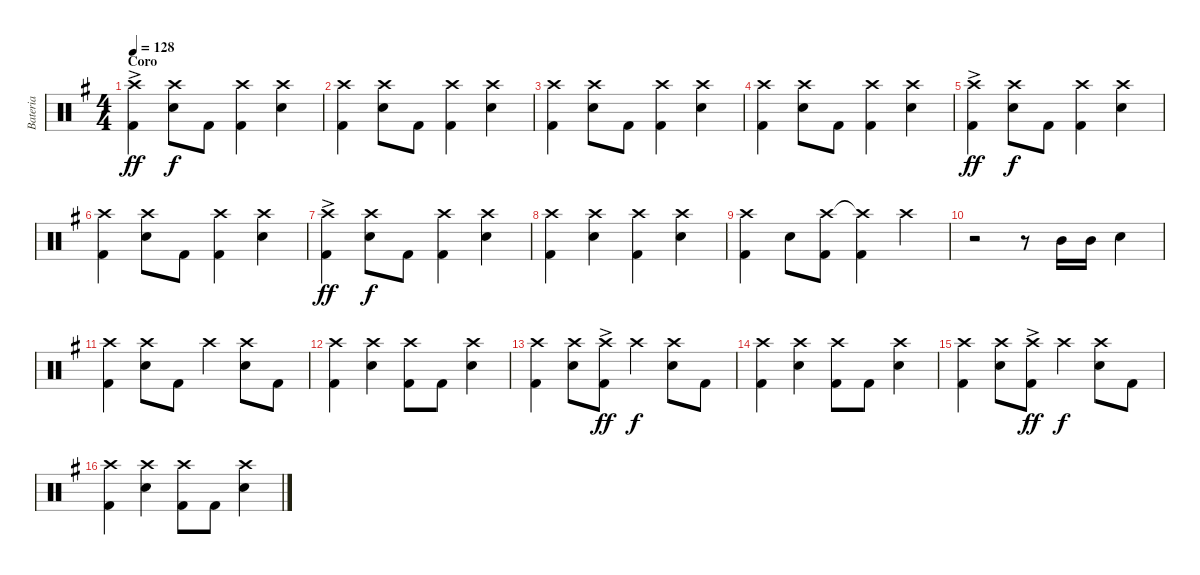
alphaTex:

\track ("Bateria" "Bateria") {instrument percussion}
\staff {score}
\articulation defaults
\ts (4 4)
\section ("" "Coro")
\tempo 128
\clef neutral
\ks g
("Crash high (hit)"{ac} "Kick (hit) 2").4{dy ff} ("Crash high (hit)" "Snare (hit) 2").8{dy f} "Kick (hit) 2".8 ("Crash high (hit)" "Kick (hit) 2").4 ("Crash high (hit)" "Snare (hit) 2").4 |
("Crash high (hit)" "Kick (hit) 2").4 ("Crash high (hit)" "Snare (hit) 2").8 "Kick (hit) 2".8 ("Crash high (hit)" "Kick (hit) 2").4 ("Crash high (hit)" "Snare (hit) 2").4 |
("Crash high (hit)" "Kick (hit) 2").4 ("Crash high (hit)" "Snare (hit) 2").8 "Kick (hit) 2".8 ("Crash high (hit)" "Kick (hit) 2").4 ("Crash high (hit)" "Snare (hit) 2").4 |
("Crash high (hit)" "Kick (hit) 2").4 ("Crash high (hit)" "Snare (hit) 2").8 "Kick (hit) 2".8 ("Crash high (hit)" "Kick (hit) 2").4 ("Crash high (hit)" "Snare (hit) 2").4 |
("Crash high (hit)"{ac} "Kick (hit) 2").4{dy ff} ("Crash high (hit)" "Snare (hit) 2").8{dy f} "Kick (hit) 2".8 ("Crash high (hit)" "Kick (hit) 2").4 ("Crash high (hit)" "Snare (hit) 2").4 |
("Crash high (hit)" "Kick (hit) 2").4 ("Crash high (hit)" "Snare (hit) 2").8 "Kick (hit) 2".8 ("Crash high (hit)" "Kick (hit) 2").4 ("Crash high (hit)" "Snare (hit) 2").4 |
("Crash high (hit)"{ac} "Kick (hit) 2").4{dy ff} ("Crash high (hit)" "Snare (hit) 2").8{dy f} "Kick (hit) 2".8 ("Crash high (hit)" "Kick (hit) 2").4 ("Crash high (hit)" "Snare (hit) 2").4 |
("Crash high (hit)" "Kick (hit) 2").4 ("Crash high (hit)" "Snare (hit) 2").4 ("Crash high (hit)" "Kick (hit) 2").4 ("Crash high (hit)" "Snare (hit) 2").4 |
("Crash high (hit)" "Kick (hit) 2").4 "Snare (hit) 2".8 ("Crash high (hit)" "Kick (hit) 2").8 ("Crash high (hit)"{t} "Kick (hit) 2").4 "Crash high (hit)".4 |
r.2 r.8 "Mid Tom (hit)".16 "Mid Tom (hit)".16 "Snare (hit) 2".4 |
("Crash high (hit)" "Kick (hit) 2").4 ("Crash high (hit)" "Snare (hit) 2").8 "Kick (hit) 2".8 "Crash high (hit)".4 ("Crash high (hit)" "Snare (hit) 2").8 "Kick (hit) 2".8 |
("Crash high (hit)" "Kick (hit) 2").4 ("Crash high (hit)" "Snare (hit) 2").4 ("Crash high (hit)" "Kick (hit) 2").8 "Kick (hit) 2".8 ("Crash high (hit)" "Snare (hit) 2").4 |
("Crash high (hit)" "Kick (hit) 2").4 ("Crash high (hit)" "Snare (hit) 2").8 ("Crash high (hit)"{ac} "Kick (hit) 2").8{dy ff} "Crash high (hit)".4{dy f} ("Crash high (hit)" "Snare (hit) 2").8 "Kick (hit) 2".8 |
("Crash high (hit)" "Kick (hit) 2").4 ("Crash high (hit)" "Snare (hit) 2").4 ("Crash high (hit)" "Kick (hit) 2").8 "Kick (hit) 2".8 ("Crash high (hit)" "Snare (hit) 2").4 |
("Crash high (hit)" "Kick (hit) 2").4 ("Crash high (hit)" "Snare (hit) 2").8 ("Crash high (hit)"{ac} "Kick (hit) 2").8{dy ff} "Crash high (hit)".4{dy f} ("Crash high (hit)" "Snare (hit) 2").8 "Kick (hit) 2".8 |
("Crash high (hit)" "Kick (hit) 2").4 ("Crash high (hit)" "Snare (hit) 2").4 ("Crash high (hit)" "Kick (hit) 2").8 "Kick (hit) 2".8 ("Crash high (hit)" "Snare (hit) 2").4
